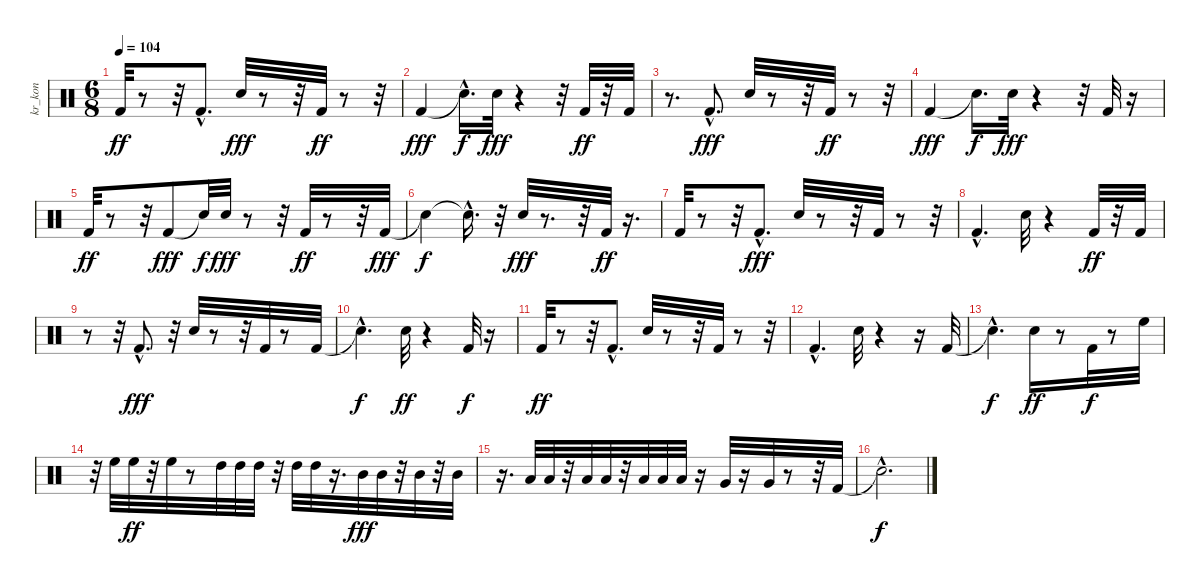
\track ("kr_kon" "kr_kon") {instrument percussion}
\staff {score}
\articulation defaults
\ts (6 8)
\tempo 104
\clef neutral
\ks c "Kick (hit) 2".32{dy ff}
r.8 r.32 "Kick (hit) 2"{hac}.8{d} "Electric Snare (hit)".32{dy fff} r.8 r.32 "Kick (hit) 2".32{dy ff} r.8 r.32 |
"Kick (hit) 2".4{dy fff} "Snare (hit)"{hac t}.16{d dy f} "Electric Snare (hit)".32{dy fff} r.4 r.32 "Kick (hit) 2".32{dy ff} r.32 "Kick (hit) 2".32 |
r.8{d} "Kick (hit) 2"{hac}.8{d dy fff} "Electric Snare (hit)".32 r.8 r.32 "Kick (hit) 2".32{dy ff} r.8 r.32 |
"Kick (hit) 2".4{dy fff} "Snare (hit)"{t}.16{d dy f} "Electric Snare (hit)".32{dy fff} r.4 r.32 "Kick (hit) 2".32 r.16 |
"Kick (hit) 2".32{dy ff} r.8 r.32 "Kick (hit) 2".8{dy fff} "Snare (hit)"{t}.32{dy f} "Electric Snare (hit)".32{dy fff} r.8 r.32 "Kick (hit) 2".32{dy ff} r.8 r.32 "Kick (hit) 2".32{dy fff} |
"Snare (hit)"{t}.4{dy f} "Snare (hit)"{hac t}.16{d} r.32 "Electric Snare (hit)".32{dy fff} r.8{d} r.32 "Kick (hit) 2".32{dy ff} r.16{d} |
"Kick (hit) 2".32 r.8 r.32 "Kick (hit) 2"{hac}.8{d dy fff} "Electric Snare (hit)".32 r.8 r.32 "Kick (hit) 2".32 r.8 r.32 |
"Kick (hit) 2"{hac}.4{d} "Electric Snare (hit)".32 r.4 "Kick (hit) 2".32{dy ff} r.32 "Kick (hit) 2".32 |
r.8 r.32 "Kick (hit) 2"{hac}.8{d dy fff} r.32 "Electric Snare (hit)".32 r.8 r.32 "Kick (hit) 2".32 r.8 "Kick (hit) 2".32 |
"Snare (hit)"{hac t}.4{d dy f} "Electric Snare (hit)".32{dy ff} r.4 "Kick (hit) 2".32{dy f} r.16 |
"Kick (hit) 2".32{dy ff} r.8 r.32 "Kick (hit) 2"{hac}.8{d} "Electric Snare (hit)".32 r.8 r.32 "Kick (hit) 2".32 r.8 r.32 |
"Kick (hit) 2"{hac}.4{d} "Electric Snare (hit)".32 r.4 r.16 "Kick (hit) 2".32 |
"Snare (hit)"{hac t}.4{d dy f} "Electric Snare (hit)".16{dy ff} r.8 "Kick (hit) 2".32{dy f} r.8 "High Floor Tom (hit)".32 |
r.32 "High Floor Tom (hit)".32 "High Floor Tom (hit)".32{dy ff} r.32 "High Floor Tom (hit)".32 r.8 "High Tom (hit)".32 "High Tom (hit)".32 "High Tom (hit)".32 r.32 "High Tom (hit)".32 "High Tom (hit)".32 r.16{d} "Mid Tom (hit)".32{dy fff} "Mid Tom (hit)".32 r.32 "Mid Tom (hit)".32 r.32 "Mid Tom (hit)".32 |
r.16{d} "Low Tom (hit)".32 "Low Tom (hit)".32 r.32 "Low Tom (hit)".32 "Low Tom (hit)".32 r.32 "Low Tom (hit)".32 "Low Tom (hit)".32 "Low Tom (hit)".32 r.16 "Very Low Tom (hit)".32 r.16 "Very Low Tom (hit)".32 r.8 r.32 "Kick (hit) 2".32 |
"Snare (hit)"{hac t}.2{d dy f}
